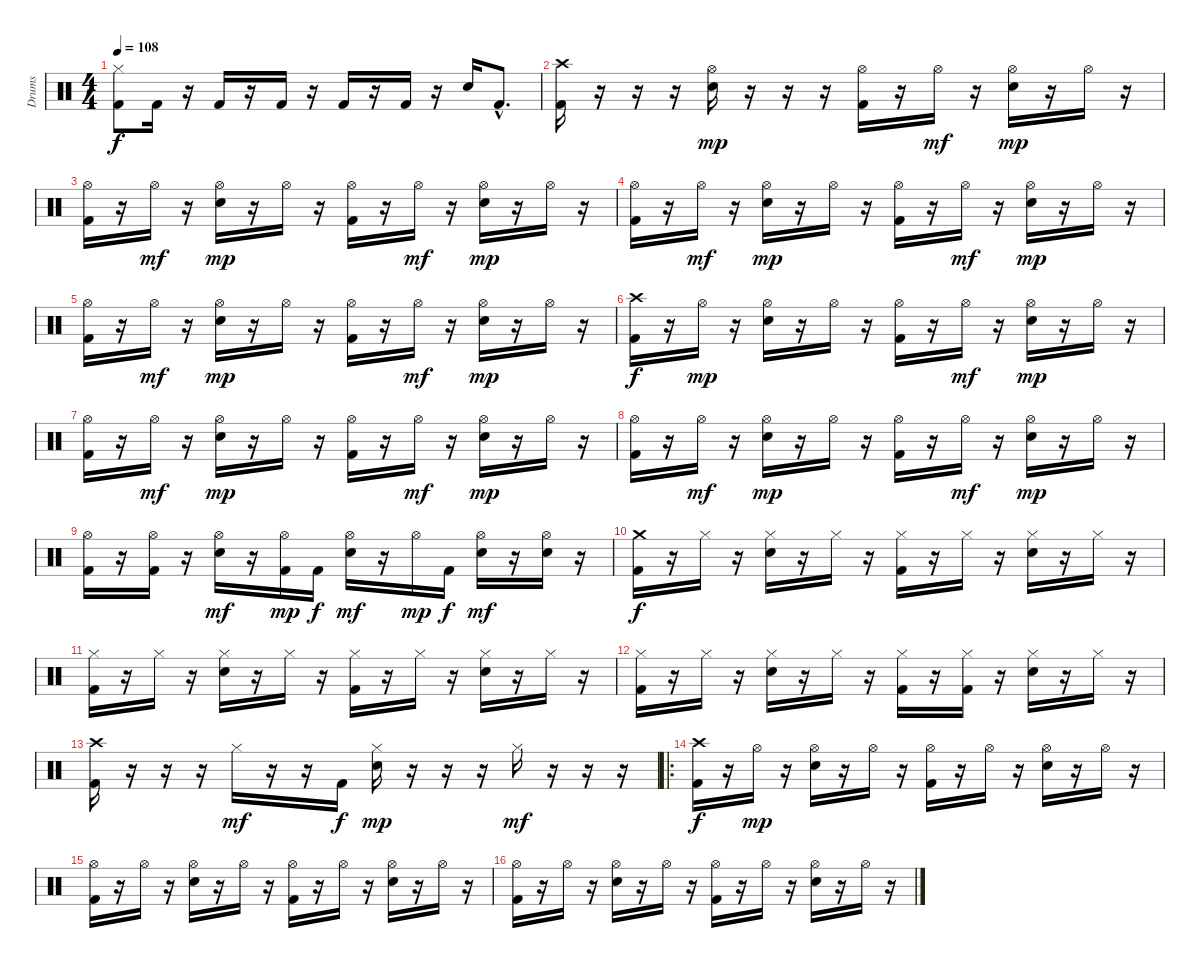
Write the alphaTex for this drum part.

\track ("Drums" "Drums") {instrument percussion}
\staff {score}
\articulation defaults
\ts (4 4)
\tempo 108
\clef neutral
\ks c
("Hi-Hat (closed)" "Kick (hit) 2").8{dy f} "Kick (hit) 2".16 r.16 "Kick (hit) 2".16 r.16 "Kick (hit) 2".16 r.16 "Kick (hit) 2".16 r.16 "Kick (hit) 2".16 r.16 "Snare (hit) 2".16 "Kick (hit) 2"{hac}.8{d} |
("Crash high (hit)" "Kick (hit) 2").16 r.16 r.16 r.16 ("Hi-Hat (open)" "Snare (hit) 2").16{dy mp} r.16 r.16 r.16 ("Hi-Hat (open)" "Kick (hit) 2").16 r.16 "Hi-Hat (open)".16{dy mf} r.16 ("Hi-Hat (open)" "Snare (hit) 2").16{dy mp} r.16 "Hi-Hat (open)".16 r.16 |
("Hi-Hat (open)" "Kick (hit) 2").16 r.16 "Hi-Hat (open)".16{dy mf} r.16 ("Hi-Hat (open)" "Snare (hit) 2").16{dy mp} r.16 "Hi-Hat (open)".16 r.16 ("Hi-Hat (open)" "Kick (hit) 2").16 r.16 "Hi-Hat (open)".16{dy mf} r.16 ("Hi-Hat (open)" "Snare (hit) 2").16{dy mp} r.16 "Hi-Hat (open)".16 r.16 |
("Hi-Hat (open)" "Kick (hit) 2").16 r.16 "Hi-Hat (open)".16{dy mf} r.16 ("Hi-Hat (open)" "Snare (hit) 2").16{dy mp} r.16 "Hi-Hat (open)".16 r.16 ("Hi-Hat (open)" "Kick (hit) 2").16 r.16 "Hi-Hat (open)".16{dy mf} r.16 ("Hi-Hat (open)" "Snare (hit) 2").16{dy mp} r.16 "Hi-Hat (open)".16 r.16 |
("Hi-Hat (open)" "Kick (hit) 2").16 r.16 "Hi-Hat (open)".16{dy mf} r.16 ("Hi-Hat (open)" "Snare (hit) 2").16{dy mp} r.16 "Hi-Hat (open)".16 r.16 ("Hi-Hat (open)" "Kick (hit) 2").16 r.16 "Hi-Hat (open)".16{dy mf} r.16 ("Hi-Hat (open)" "Snare (hit) 2").16{dy mp} r.16 "Hi-Hat (open)".16 r.16 |
("Crash high (hit)" "Kick (hit) 2").16{dy f} r.16 "Hi-Hat (open)".16{dy mp} r.16 ("Hi-Hat (open)" "Snare (hit) 2").16 r.16 "Hi-Hat (open)".16 r.16 ("Hi-Hat (open)" "Kick (hit) 2").16 r.16 "Hi-Hat (open)".16{dy mf} r.16 ("Hi-Hat (open)" "Snare (hit) 2").16{dy mp} r.16 "Hi-Hat (open)".16 r.16 |
("Hi-Hat (open)" "Kick (hit) 2").16 r.16 "Hi-Hat (open)".16{dy mf} r.16 ("Hi-Hat (open)" "Snare (hit) 2").16{dy mp} r.16 "Hi-Hat (open)".16 r.16 ("Hi-Hat (open)" "Kick (hit) 2").16 r.16 "Hi-Hat (open)".16{dy mf} r.16 ("Hi-Hat (open)" "Snare (hit) 2").16{dy mp} r.16 "Hi-Hat (open)".16 r.16 |
("Hi-Hat (open)" "Kick (hit) 2").16 r.16 "Hi-Hat (open)".16{dy mf} r.16 ("Hi-Hat (open)" "Snare (hit) 2").16{dy mp} r.16 "Hi-Hat (open)".16 r.16 ("Hi-Hat (open)" "Kick (hit) 2").16 r.16 "Hi-Hat (open)".16{dy mf} r.16 ("Hi-Hat (open)" "Snare (hit) 2").16{dy mp} r.16 "Hi-Hat (open)".16 r.16 |
("Hi-Hat (open)" "Kick (hit) 2").16 r.16 ("Hi-Hat (open)" "Kick (hit) 2").16 r.16 ("Hi-Hat (open)" "Snare (hit) 2").16{dy mf} r.16 ("Hi-Hat (open)" "Kick (hit) 2").16{dy mp} "Kick (hit) 2".16{dy f} ("Hi-Hat (open)" "Snare (hit) 2").16{dy mf} r.16 "Hi-Hat (open)".16{dy mp} "Kick (hit) 2".16{dy f} ("Hi-Hat (open)" "Snare (hit) 2").16{dy mf} r.16 ("Hi-Hat (open)" "Snare (hit) 2").16 r.16 |
("Crash medium (hit)" "Kick (hit) 2").16{dy f} r.16 "Hi-Hat (closed)".16 r.16 ("Hi-Hat (closed)" "Snare (hit) 2").16 r.16 "Hi-Hat (closed)".16 r.16 ("Hi-Hat (closed)" "Kick (hit) 2").16 r.16 "Hi-Hat (closed)".16 r.16 ("Hi-Hat (closed)" "Snare (hit) 2").16 r.16 "Hi-Hat (closed)".16 r.16 |
("Hi-Hat (closed)" "Kick (hit) 2").16 r.16 "Hi-Hat (closed)".16 r.16 ("Hi-Hat (closed)" "Snare (hit) 2").16 r.16 "Hi-Hat (closed)".16 r.16 ("Hi-Hat (closed)" "Kick (hit) 2").16 r.16 "Hi-Hat (closed)".16 r.16 ("Hi-Hat (closed)" "Snare (hit) 2").16 r.16 "Hi-Hat (closed)".16 r.16 |
("Hi-Hat (closed)" "Kick (hit) 2").16 r.16 "Hi-Hat (closed)".16 r.16 ("Hi-Hat (closed)" "Snare (hit) 2").16 r.16 "Hi-Hat (closed)".16 r.16 ("Hi-Hat (closed)" "Kick (hit) 2").16 r.16 ("Hi-Hat (closed)" "Kick (hit) 2").16 r.16 ("Hi-Hat (closed)" "Snare (hit) 2").16 r.16 "Hi-Hat (closed)".16 r.16 |
("Crash high (hit)" "Kick (hit) 2").16 r.16 r.16 r.16 "Hi-Hat (closed)".16{dy mf} r.16 r.16 "Kick (hit) 2".16{dy f} ("Hi-Hat (closed)" "Snare (hit) 2").16{dy mp} r.16 r.16 r.16 "Hi-Hat (closed)".16{dy mf} r.16 r.16 r.16 |
\ro
("Crash high (hit)" "Kick (hit) 2").16{dy f} r.16 "Hi-Hat (open)".16{dy mp} r.16 ("Hi-Hat (open)" "Snare (hit) 2").16 r.16 "Hi-Hat (open)".16 r.16 ("Hi-Hat (open)" "Kick (hit) 2").16 r.16 "Hi-Hat (open)".16 r.16 ("Hi-Hat (open)" "Snare (hit) 2").16 r.16 "Hi-Hat (open)".16 r.16 |
("Hi-Hat (open)" "Kick (hit) 2").16 r.16 "Hi-Hat (open)".16 r.16 ("Hi-Hat (open)" "Snare (hit) 2").16 r.16 "Hi-Hat (open)".16 r.16 ("Hi-Hat (open)" "Kick (hit) 2").16 r.16 "Hi-Hat (open)".16 r.16 ("Hi-Hat (open)" "Snare (hit) 2").16 r.16 "Hi-Hat (open)".16 r.16 |
("Hi-Hat (open)" "Kick (hit) 2").16 r.16 "Hi-Hat (open)".16 r.16 ("Hi-Hat (open)" "Snare (hit) 2").16 r.16 "Hi-Hat (open)".16 r.16 ("Hi-Hat (open)" "Kick (hit) 2").16 r.16 "Hi-Hat (open)".16 r.16 ("Hi-Hat (open)" "Snare (hit) 2").16 r.16 "Hi-Hat (open)".16 r.16
